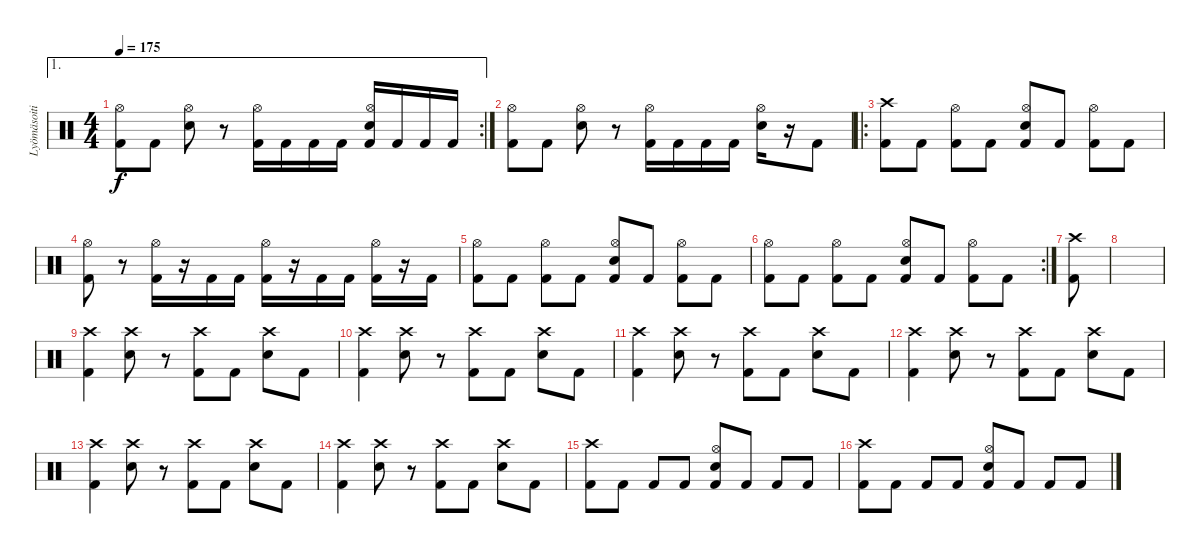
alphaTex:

\track ("Lyömäsoitin" "Lyömäsoiti") {instrument percussion}
\staff {score}
\articulation defaults
\ae 1
\rc 2
\ts (4 4)
\tempo 175
\clef neutral
\ks c
("Kick (hit) 2" "Hi-Hat (open)").8{dy f} "Kick (hit) 2".8 ("Electric Snare (hit)" "Hi-Hat (open)").8 r.8 ("Kick (hit) 2" "Hi-Hat (open)").16 "Kick (hit) 2".16 "Kick (hit) 2".16 "Kick (hit) 2".16 ("Kick (hit) 2" "Electric Snare (hit)" "Hi-Hat (open)").16 "Kick (hit) 2".16 "Kick (hit) 2".16 "Kick (hit) 2".16 |
("Kick (hit) 2" "Hi-Hat (open)").8 "Kick (hit) 2".8 ("Electric Snare (hit)" "Hi-Hat (open)").8 r.8 ("Kick (hit) 2" "Hi-Hat (open)").16 "Kick (hit) 2".16 "Kick (hit) 2".16 "Kick (hit) 2".16 ("Electric Snare (hit)" "Hi-Hat (open)").16 r.16 "Kick (hit) 2".8 |
\ro
("Kick (hit) 2" "Crash high (hit)").8 "Kick (hit) 2".8 ("Kick (hit) 2" "Hi-Hat (open)").8 "Kick (hit) 2".8 ("Kick (hit) 2" "Electric Snare (hit)" "Hi-Hat (open)").8 "Kick (hit) 2".8 ("Kick (hit) 2" "Hi-Hat (open)").8 "Kick (hit) 2".8 |
("Kick (hit) 2" "Hi-Hat (open)").8 r.8 ("Kick (hit) 2" "Hi-Hat (open)").16 r.16 "Kick (hit) 2".16 "Kick (hit) 2".16 ("Kick (hit) 2" "Hi-Hat (open)").16 r.16 "Kick (hit) 2".16 "Kick (hit) 2".16 ("Kick (hit) 2" "Hi-Hat (open)").16 r.16 "Kick (hit) 2".16 |
("Kick (hit) 2" "Hi-Hat (open)").8 "Kick (hit) 2".8 ("Kick (hit) 2" "Hi-Hat (open)").8 "Kick (hit) 2".8 ("Kick (hit) 2" "Electric Snare (hit)" "Hi-Hat (open)").8 "Kick (hit) 2".8 ("Kick (hit) 2" "Hi-Hat (open)").8 "Kick (hit) 2".8 |
\rc 2
("Kick (hit) 2" "Hi-Hat (open)").8 "Kick (hit) 2".8 ("Kick (hit) 2" "Hi-Hat (open)").8 "Kick (hit) 2".8 ("Kick (hit) 2" "Electric Snare (hit)" "Hi-Hat (open)").8 "Kick (hit) 2".8 ("Kick (hit) 2" "Hi-Hat (open)").8 "Kick (hit) 2".8 |
("Kick (hit) 2" "Crash high (hit)").8 |
|
("Kick (hit) 2" "Crash high (hit)").4 ("Electric Snare (hit)" "Crash high (hit)").8 r.8 ("Kick (hit) 2" "Crash high (hit)").8 "Kick (hit) 2".8 ("Electric Snare (hit)" "Crash high (hit)").8 "Kick (hit) 2".8 |
("Kick (hit) 2" "Crash high (hit)").4 ("Electric Snare (hit)" "Crash high (hit)").8 r.8 ("Kick (hit) 2" "Crash high (hit)").8 "Kick (hit) 2".8 ("Electric Snare (hit)" "Crash high (hit)").8 "Kick (hit) 2".8 |
("Kick (hit) 2" "Crash high (hit)").4 ("Electric Snare (hit)" "Crash high (hit)").8 r.8 ("Kick (hit) 2" "Crash high (hit)").8 "Kick (hit) 2".8 ("Electric Snare (hit)" "Crash high (hit)").8 "Kick (hit) 2".8 |
("Kick (hit) 2" "Crash high (hit)").4 ("Electric Snare (hit)" "Crash high (hit)").8 r.8 ("Kick (hit) 2" "Crash high (hit)").8 "Kick (hit) 2".8 ("Electric Snare (hit)" "Crash high (hit)").8 "Kick (hit) 2".8 |
("Kick (hit) 2" "Crash high (hit)").4 ("Electric Snare (hit)" "Crash high (hit)").8 r.8 ("Kick (hit) 2" "Crash high (hit)").8 "Kick (hit) 2".8 ("Electric Snare (hit)" "Crash high (hit)").8 "Kick (hit) 2".8 |
("Kick (hit) 2" "Crash high (hit)").4 ("Electric Snare (hit)" "Crash high (hit)").8 r.8 ("Kick (hit) 2" "Crash high (hit)").8 "Kick (hit) 2".8 ("Electric Snare (hit)" "Crash high (hit)").8 "Kick (hit) 2".8 |
("Kick (hit) 2" "Crash high (hit)").8 "Kick (hit) 2".8 "Kick (hit) 2".8 "Kick (hit) 2".8 ("Kick (hit) 2" "Electric Snare (hit)" "Hi-Hat (open)").8 "Kick (hit) 2".8 "Kick (hit) 2".8 "Kick (hit) 2".8 |
("Kick (hit) 2" "Crash high (hit)").8 "Kick (hit) 2".8 "Kick (hit) 2".8 "Kick (hit) 2".8 ("Kick (hit) 2" "Electric Snare (hit)" "Hi-Hat (open)").8 "Kick (hit) 2".8 "Kick (hit) 2".8 "Kick (hit) 2".8
